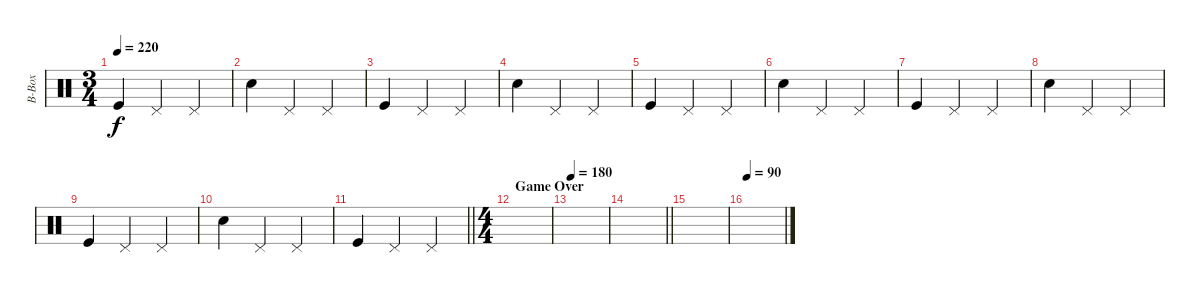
\track ("B-Box" "B-Box") {instrument percussion}
\staff {score}
\articulation defaults
\ts (3 4)
\tempo 220
\clef neutral
\ks c "Kick (hit)".4{dy f} "Pedal Hi-Hat (hit)".4 "Pedal Hi-Hat (hit)".4
|
"Snare (hit) 2".4 "Pedal Hi-Hat (hit)".4 "Pedal Hi-Hat (hit)".4 |
"Kick (hit)".4 "Pedal Hi-Hat (hit)".4 "Pedal Hi-Hat (hit)".4 |
"Snare (hit) 2".4 "Pedal Hi-Hat (hit)".4 "Pedal Hi-Hat (hit)".4 |
"Kick (hit)".4 "Pedal Hi-Hat (hit)".4 "Pedal Hi-Hat (hit)".4 |
"Snare (hit) 2".4 "Pedal Hi-Hat (hit)".4 "Pedal Hi-Hat (hit)".4 |
"Kick (hit)".4 "Pedal Hi-Hat (hit)".4 "Pedal Hi-Hat (hit)".4 |
"Snare (hit) 2".4 "Pedal Hi-Hat (hit)".4 "Pedal Hi-Hat (hit)".4 |
"Kick (hit)".4 "Pedal Hi-Hat (hit)".4 "Pedal Hi-Hat (hit)".4 |
"Snare (hit) 2".4 "Pedal Hi-Hat (hit)".4 "Pedal Hi-Hat (hit)".4 |
\barLineRight lightlight "Kick (hit)".4 "Pedal Hi-Hat (hit)".4 "Pedal Hi-Hat (hit)".4
|
\ts (4 4)
\section ("" "Game Over")
|
\tempo 180
|
\barLineRight lightlight
|
|
\tempo 90
